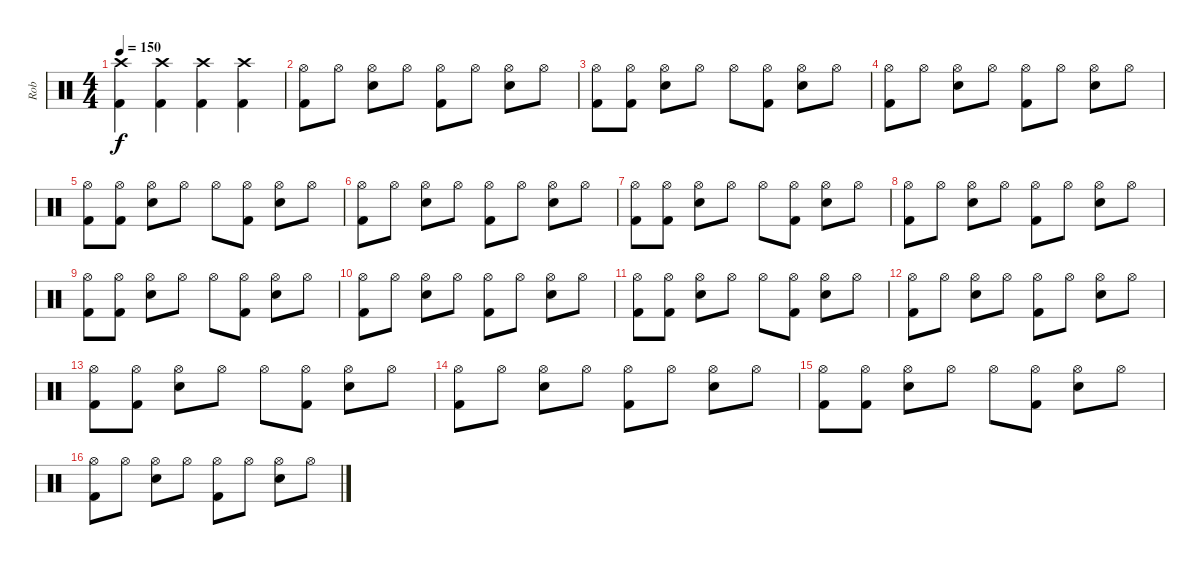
\track ("Rob" "Rob") {instrument percussion}
\staff {score}
\articulation defaults
\ts (4 4)
\tempo 150
\clef neutral
\ks c
("Crash high (hit)" "Kick (hit) 2").4{dy f} ("Crash high (hit)" "Kick (hit) 2").4 ("Crash high (hit)" "Kick (hit) 2").4 ("Crash high (hit)" "Kick (hit) 2").4 |
("Hi-Hat (open)" "Kick (hit) 2").8 "Hi-Hat (open)".8 ("Hi-Hat (open)" "Electric Snare (hit)").8 "Hi-Hat (open)".8 ("Hi-Hat (open)" "Kick (hit) 2").8 "Hi-Hat (open)".8 ("Hi-Hat (open)" "Electric Snare (hit)").8 "Hi-Hat (open)".8 |
("Hi-Hat (open)" "Kick (hit) 2").8 ("Hi-Hat (open)" "Kick (hit) 2").8 ("Hi-Hat (open)" "Electric Snare (hit)").8 "Hi-Hat (open)".8 "Hi-Hat (open)".8 ("Hi-Hat (open)" "Kick (hit) 2").8 ("Hi-Hat (open)" "Electric Snare (hit)").8 "Hi-Hat (open)".8 |
("Hi-Hat (open)" "Kick (hit) 2").8 "Hi-Hat (open)".8 ("Hi-Hat (open)" "Electric Snare (hit)").8 "Hi-Hat (open)".8 ("Hi-Hat (open)" "Kick (hit) 2").8 "Hi-Hat (open)".8 ("Hi-Hat (open)" "Electric Snare (hit)").8 "Hi-Hat (open)".8 |
("Hi-Hat (open)" "Kick (hit) 2").8 ("Hi-Hat (open)" "Kick (hit) 2").8 ("Hi-Hat (open)" "Electric Snare (hit)").8 "Hi-Hat (open)".8 "Hi-Hat (open)".8 ("Hi-Hat (open)" "Kick (hit) 2").8 ("Hi-Hat (open)" "Electric Snare (hit)").8 "Hi-Hat (open)".8 |
("Hi-Hat (open)" "Kick (hit) 2").8 "Hi-Hat (open)".8 ("Hi-Hat (open)" "Electric Snare (hit)").8 "Hi-Hat (open)".8 ("Hi-Hat (open)" "Kick (hit) 2").8 "Hi-Hat (open)".8 ("Hi-Hat (open)" "Electric Snare (hit)").8 "Hi-Hat (open)".8 |
("Hi-Hat (open)" "Kick (hit) 2").8 ("Hi-Hat (open)" "Kick (hit) 2").8 ("Hi-Hat (open)" "Electric Snare (hit)").8 "Hi-Hat (open)".8 "Hi-Hat (open)".8 ("Hi-Hat (open)" "Kick (hit) 2").8 ("Hi-Hat (open)" "Electric Snare (hit)").8 "Hi-Hat (open)".8 |
("Hi-Hat (open)" "Kick (hit) 2").8 "Hi-Hat (open)".8 ("Hi-Hat (open)" "Electric Snare (hit)").8 "Hi-Hat (open)".8 ("Hi-Hat (open)" "Kick (hit) 2").8 "Hi-Hat (open)".8 ("Hi-Hat (open)" "Electric Snare (hit)").8 "Hi-Hat (open)".8 |
("Hi-Hat (open)" "Kick (hit) 2").8 ("Hi-Hat (open)" "Kick (hit) 2").8 ("Hi-Hat (open)" "Electric Snare (hit)").8 "Hi-Hat (open)".8 "Hi-Hat (open)".8 ("Hi-Hat (open)" "Kick (hit) 2").8 ("Hi-Hat (open)" "Electric Snare (hit)").8 "Hi-Hat (open)".8 |
("Hi-Hat (open)" "Kick (hit) 2").8 "Hi-Hat (open)".8 ("Hi-Hat (open)" "Electric Snare (hit)").8 "Hi-Hat (open)".8 ("Hi-Hat (open)" "Kick (hit) 2").8 "Hi-Hat (open)".8 ("Hi-Hat (open)" "Electric Snare (hit)").8 "Hi-Hat (open)".8 |
("Hi-Hat (open)" "Kick (hit) 2").8 ("Hi-Hat (open)" "Kick (hit) 2").8 ("Hi-Hat (open)" "Electric Snare (hit)").8 "Hi-Hat (open)".8 "Hi-Hat (open)".8 ("Hi-Hat (open)" "Kick (hit) 2").8 ("Hi-Hat (open)" "Electric Snare (hit)").8 "Hi-Hat (open)".8 |
("Hi-Hat (open)" "Kick (hit) 2").8 "Hi-Hat (open)".8 ("Hi-Hat (open)" "Electric Snare (hit)").8 "Hi-Hat (open)".8 ("Hi-Hat (open)" "Kick (hit) 2").8 "Hi-Hat (open)".8 ("Hi-Hat (open)" "Electric Snare (hit)").8 "Hi-Hat (open)".8 |
("Hi-Hat (open)" "Kick (hit) 2").8 ("Hi-Hat (open)" "Kick (hit) 2").8 ("Hi-Hat (open)" "Electric Snare (hit)").8 "Hi-Hat (open)".8 "Hi-Hat (open)".8 ("Hi-Hat (open)" "Kick (hit) 2").8 ("Hi-Hat (open)" "Electric Snare (hit)").8 "Hi-Hat (open)".8 |
("Hi-Hat (open)" "Kick (hit) 2").8 "Hi-Hat (open)".8 ("Hi-Hat (open)" "Electric Snare (hit)").8 "Hi-Hat (open)".8 ("Hi-Hat (open)" "Kick (hit) 2").8 "Hi-Hat (open)".8 ("Hi-Hat (open)" "Electric Snare (hit)").8 "Hi-Hat (open)".8 |
("Hi-Hat (open)" "Kick (hit) 2").8 ("Hi-Hat (open)" "Kick (hit) 2").8 ("Hi-Hat (open)" "Electric Snare (hit)").8 "Hi-Hat (open)".8 "Hi-Hat (open)".8 ("Hi-Hat (open)" "Kick (hit) 2").8 ("Hi-Hat (open)" "Electric Snare (hit)").8 "Hi-Hat (open)".8 |
("Hi-Hat (open)" "Kick (hit) 2").8 "Hi-Hat (open)".8 ("Hi-Hat (open)" "Electric Snare (hit)").8 "Hi-Hat (open)".8 ("Hi-Hat (open)" "Kick (hit) 2").8 "Hi-Hat (open)".8 ("Hi-Hat (open)" "Electric Snare (hit)").8 "Hi-Hat (open)".8
